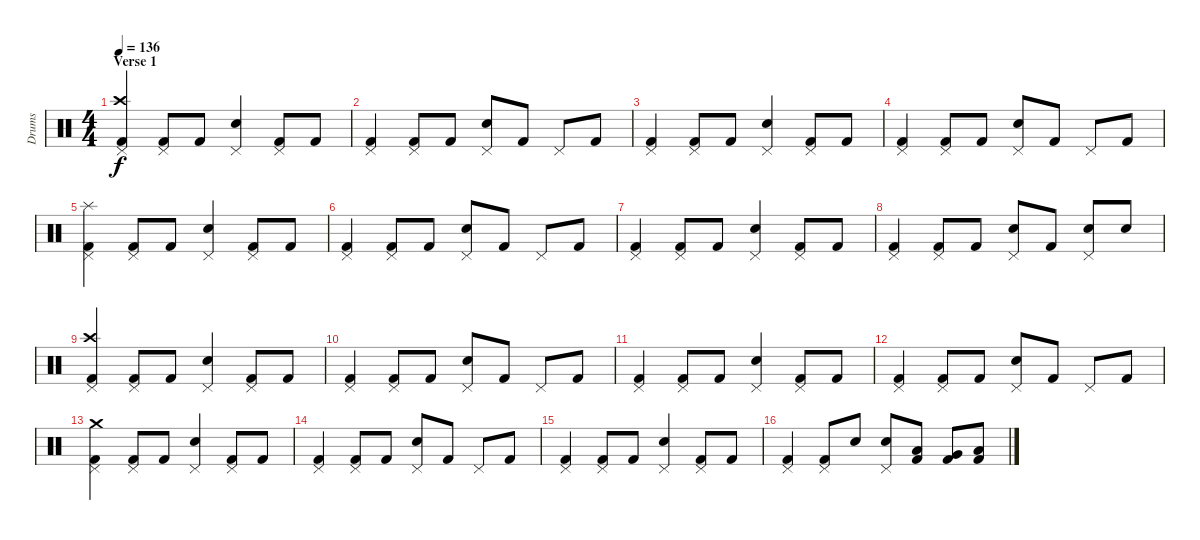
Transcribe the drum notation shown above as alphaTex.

\track ("Drums" "Drums") {instrument percussion}
\staff {score}
\articulation defaults
\ts (4 4)
\section ("" "Verse 1")
\tempo 136
\clef neutral
\ks c
("Pedal Hi-Hat (hit)" "Crash high (hit)" "Kick (hit) 2").4{dy f} ("Pedal Hi-Hat (hit)" "Kick (hit) 2").8 "Kick (hit) 2".8 ("Pedal Hi-Hat (hit)" "Snare (hit) 2").4 ("Pedal Hi-Hat (hit)" "Kick (hit) 2").8 "Kick (hit) 2".8 |
("Pedal Hi-Hat (hit)" "Kick (hit) 2").4 ("Pedal Hi-Hat (hit)" "Kick (hit) 2").8 "Kick (hit) 2".8 ("Pedal Hi-Hat (hit)" "Snare (hit) 2").8 "Kick (hit) 2".8 "Pedal Hi-Hat (hit)".8 "Kick (hit) 2".8 |
("Pedal Hi-Hat (hit)" "Kick (hit) 2").4 ("Pedal Hi-Hat (hit)" "Kick (hit) 2").8 "Kick (hit) 2".8 ("Pedal Hi-Hat (hit)" "Snare (hit) 2").4 ("Pedal Hi-Hat (hit)" "Kick (hit) 2").8 "Kick (hit) 2".8 |
("Pedal Hi-Hat (hit)" "Kick (hit) 2").4 ("Pedal Hi-Hat (hit)" "Kick (hit) 2").8 "Kick (hit) 2".8 ("Pedal Hi-Hat (hit)" "Snare (hit) 2").8 "Kick (hit) 2".8 "Pedal Hi-Hat (hit)".8 "Kick (hit) 2".8 |
("Pedal Hi-Hat (hit)" "Splash (hit)" "Kick (hit) 2").4 ("Pedal Hi-Hat (hit)" "Kick (hit) 2").8 "Kick (hit) 2".8 ("Pedal Hi-Hat (hit)" "Snare (hit) 2").4 ("Pedal Hi-Hat (hit)" "Kick (hit) 2").8 "Kick (hit) 2".8 |
("Pedal Hi-Hat (hit)" "Kick (hit) 2").4 ("Pedal Hi-Hat (hit)" "Kick (hit) 2").8 "Kick (hit) 2".8 ("Pedal Hi-Hat (hit)" "Snare (hit) 2").8 "Kick (hit) 2".8 "Pedal Hi-Hat (hit)".8 "Kick (hit) 2".8 |
("Pedal Hi-Hat (hit)" "Kick (hit) 2").4 ("Pedal Hi-Hat (hit)" "Kick (hit) 2").8 "Kick (hit) 2".8 ("Pedal Hi-Hat (hit)" "Snare (hit) 2").4 ("Pedal Hi-Hat (hit)" "Kick (hit) 2").8 "Kick (hit) 2".8 |
("Pedal Hi-Hat (hit)" "Kick (hit) 2").4 ("Pedal Hi-Hat (hit)" "Kick (hit) 2").8 "Kick (hit) 2".8 ("Pedal Hi-Hat (hit)" "Snare (hit) 2").8 "Kick (hit) 2".8 ("Pedal Hi-Hat (hit)" "Snare (hit) 2").8 "Snare (hit) 2".8 |
("Pedal Hi-Hat (hit)" "Crash high (hit)" "Kick (hit) 2").4 ("Pedal Hi-Hat (hit)" "Kick (hit) 2").8 "Kick (hit) 2".8 ("Pedal Hi-Hat (hit)" "Snare (hit) 2").4 ("Pedal Hi-Hat (hit)" "Kick (hit) 2").8 "Kick (hit) 2".8 |
("Pedal Hi-Hat (hit)" "Kick (hit) 2").4 ("Pedal Hi-Hat (hit)" "Kick (hit) 2").8 "Kick (hit) 2".8 ("Pedal Hi-Hat (hit)" "Snare (hit) 2").8 "Kick (hit) 2".8 "Pedal Hi-Hat (hit)".8 "Kick (hit) 2".8 |
("Pedal Hi-Hat (hit)" "Kick (hit) 2").4 ("Pedal Hi-Hat (hit)" "Kick (hit) 2").8 "Kick (hit) 2".8 ("Pedal Hi-Hat (hit)" "Snare (hit) 2").4 ("Pedal Hi-Hat (hit)" "Kick (hit) 2").8 "Kick (hit) 2".8 |
("Pedal Hi-Hat (hit)" "Kick (hit) 2").4 ("Pedal Hi-Hat (hit)" "Kick (hit) 2").8 "Kick (hit) 2".8 ("Pedal Hi-Hat (hit)" "Snare (hit) 2").8 "Kick (hit) 2".8 "Pedal Hi-Hat (hit)".8 "Kick (hit) 2".8 |
("Pedal Hi-Hat (hit)" "Crash medium (hit)" "Kick (hit) 2").4 ("Pedal Hi-Hat (hit)" "Kick (hit) 2").8 "Kick (hit) 2".8 ("Pedal Hi-Hat (hit)" "Snare (hit) 2").4 ("Pedal Hi-Hat (hit)" "Kick (hit) 2").8 "Kick (hit) 2".8 |
("Pedal Hi-Hat (hit)" "Kick (hit) 2").4 ("Pedal Hi-Hat (hit)" "Kick (hit) 2").8 "Kick (hit) 2".8 ("Pedal Hi-Hat (hit)" "Snare (hit) 2").8 "Kick (hit) 2".8 "Pedal Hi-Hat (hit)".8 "Kick (hit) 2".8 |
("Pedal Hi-Hat (hit)" "Kick (hit) 2").4 ("Pedal Hi-Hat (hit)" "Kick (hit) 2").8 "Kick (hit) 2".8 ("Pedal Hi-Hat (hit)" "Snare (hit) 2").4 ("Pedal Hi-Hat (hit)" "Kick (hit) 2").8 "Kick (hit) 2".8 |
("Pedal Hi-Hat (hit)" "Kick (hit) 2").4 ("Pedal Hi-Hat (hit)" "Kick (hit) 2").8 "Snare (hit) 2".8 ("Pedal Hi-Hat (hit)" "Snare (hit) 2").8 ("Low Tom (hit)" "Kick (hit) 2").8 ("Very Low Tom (hit)" "Kick (hit) 2").8 ("Low Floor Tom (hit)" "Kick (hit) 2").8
